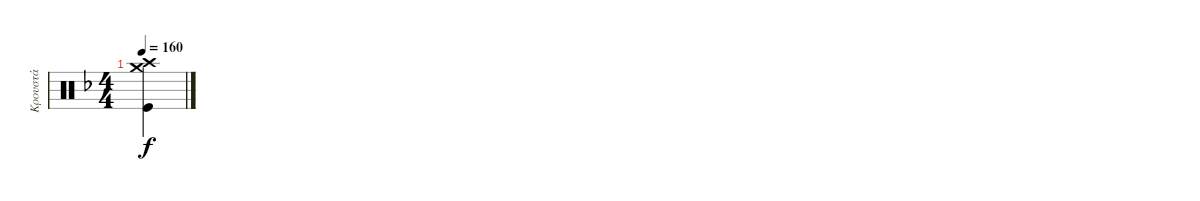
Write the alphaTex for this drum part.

\track ("Κρουστά" "Κρουστά") {instrument percussion}
\staff {score}
\articulation defaults
\ts (4 4)
\tempo 160
\clef neutral
\ks dminor
("Kick (hit)" "Crash high (hit)" "Crash medium (hit)").4{dy f}
